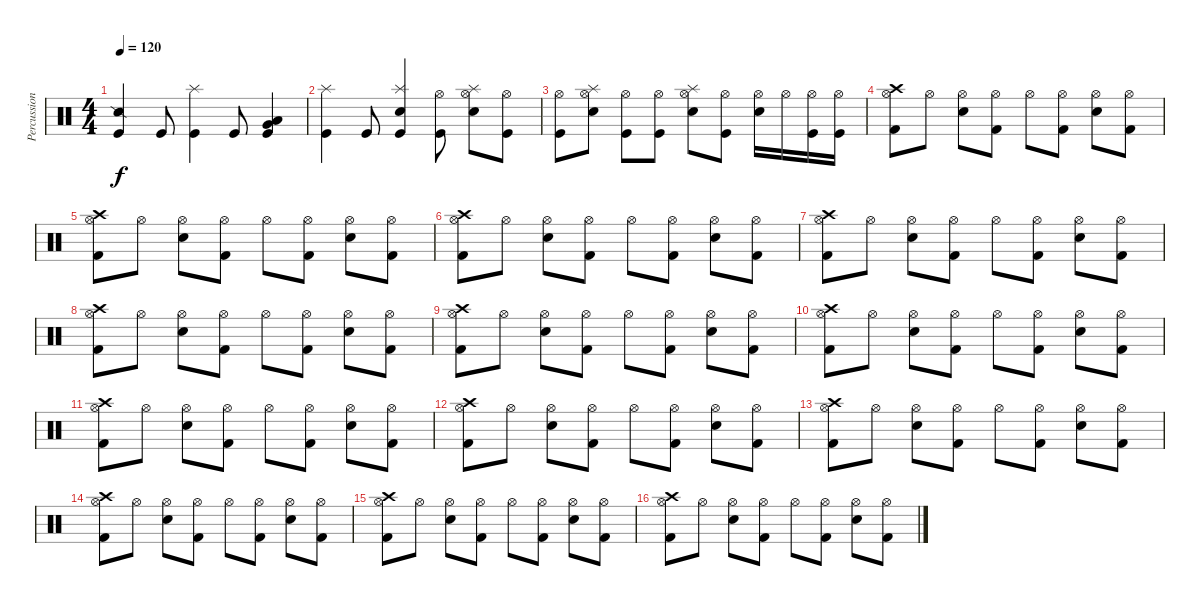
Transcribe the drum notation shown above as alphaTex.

\track ("Percussion" "Percussion") {instrument percussion}
\staff {score}
\articulation defaults
\ts (4 4)
\tempo 120
\clef neutral
\ks c
("Snare (side stick) 2" "Kick (hit)").4{dy f} "Kick (hit)".8 ("Kick (hit)" "Splash (hit)").4 "Kick (hit)".8 ("Kick (hit)" "Low Floor Tom (hit)" "Very Low Tom (hit)").4 |
("Splash (hit)" "Kick (hit)").4 "Kick (hit)".8 ("Snare (hit) 2" "Kick (hit)" "Splash (hit)").4 ("Hi-Hat (open)" "Kick (hit)").8 ("Hi-Hat (open)" "Splash (hit)" "Snare (hit) 2").8 ("Hi-Hat (open)" "Kick (hit)").8 |
("Kick (hit)" "Hi-Hat (open)").8 ("Splash (hit)" "Snare (hit) 2" "Hi-Hat (open)").8 ("Kick (hit)" "Hi-Hat (open)").8 ("Kick (hit)" "Hi-Hat (open)").8 ("Splash (hit)" "Snare (hit) 2" "Hi-Hat (open)").8 ("Kick (hit)" "Hi-Hat (open)").8 ("Snare (hit) 2" "Hi-Hat (open)").16 "Hi-Hat (open)".16 ("Kick (hit)" "Hi-Hat (open)").16 ("Kick (hit)" "Hi-Hat (open)").16 |
("Kick (hit) 2" "Hi-Hat (open)" "Crash high (hit)").8 "Hi-Hat (open)".8 ("Electric Snare (hit)" "Hi-Hat (open)").8 ("Kick (hit) 2" "Hi-Hat (open)").8 "Hi-Hat (open)".8 ("Kick (hit) 2" "Hi-Hat (open)").8 ("Electric Snare (hit)" "Hi-Hat (open)").8 ("Kick (hit) 2" "Hi-Hat (open)").8 |
("Kick (hit) 2" "Hi-Hat (open)" "Crash high (hit)").8 "Hi-Hat (open)".8 ("Electric Snare (hit)" "Hi-Hat (open)").8 ("Kick (hit) 2" "Hi-Hat (open)").8 "Hi-Hat (open)".8 ("Kick (hit) 2" "Hi-Hat (open)").8 ("Electric Snare (hit)" "Hi-Hat (open)").8 ("Kick (hit) 2" "Hi-Hat (open)").8 |
("Kick (hit) 2" "Hi-Hat (open)" "Crash high (hit)").8 "Hi-Hat (open)".8 ("Electric Snare (hit)" "Hi-Hat (open)").8 ("Kick (hit) 2" "Hi-Hat (open)").8 "Hi-Hat (open)".8 ("Kick (hit) 2" "Hi-Hat (open)").8 ("Electric Snare (hit)" "Hi-Hat (open)").8 ("Kick (hit) 2" "Hi-Hat (open)").8 |
("Kick (hit) 2" "Hi-Hat (open)" "Crash high (hit)").8 "Hi-Hat (open)".8 ("Electric Snare (hit)" "Hi-Hat (open)").8 ("Kick (hit) 2" "Hi-Hat (open)").8 "Hi-Hat (open)".8 ("Kick (hit) 2" "Hi-Hat (open)").8 ("Electric Snare (hit)" "Hi-Hat (open)").8 ("Kick (hit) 2" "Hi-Hat (open)").8 |
("Kick (hit) 2" "Hi-Hat (open)" "Crash high (hit)").8 "Hi-Hat (open)".8 ("Electric Snare (hit)" "Hi-Hat (open)").8 ("Kick (hit) 2" "Hi-Hat (open)").8 "Hi-Hat (open)".8 ("Kick (hit) 2" "Hi-Hat (open)").8 ("Electric Snare (hit)" "Hi-Hat (open)").8 ("Kick (hit) 2" "Hi-Hat (open)").8 |
("Kick (hit) 2" "Hi-Hat (open)" "Crash high (hit)").8 "Hi-Hat (open)".8 ("Electric Snare (hit)" "Hi-Hat (open)").8 ("Kick (hit) 2" "Hi-Hat (open)").8 "Hi-Hat (open)".8 ("Kick (hit) 2" "Hi-Hat (open)").8 ("Electric Snare (hit)" "Hi-Hat (open)").8 ("Kick (hit) 2" "Hi-Hat (open)").8 |
("Kick (hit) 2" "Hi-Hat (open)" "Crash high (hit)").8 "Hi-Hat (open)".8 ("Electric Snare (hit)" "Hi-Hat (open)").8 ("Kick (hit) 2" "Hi-Hat (open)").8 "Hi-Hat (open)".8 ("Kick (hit) 2" "Hi-Hat (open)").8 ("Electric Snare (hit)" "Hi-Hat (open)").8 ("Kick (hit) 2" "Hi-Hat (open)").8 |
("Kick (hit) 2" "Hi-Hat (open)" "Crash high (hit)").8 "Hi-Hat (open)".8 ("Electric Snare (hit)" "Hi-Hat (open)").8 ("Kick (hit) 2" "Hi-Hat (open)").8 "Hi-Hat (open)".8 ("Kick (hit) 2" "Hi-Hat (open)").8 ("Electric Snare (hit)" "Hi-Hat (open)").8 ("Kick (hit) 2" "Hi-Hat (open)").8 |
("Kick (hit) 2" "Hi-Hat (open)" "Crash high (hit)").8 "Hi-Hat (open)".8 ("Electric Snare (hit)" "Hi-Hat (open)").8 ("Kick (hit) 2" "Hi-Hat (open)").8 "Hi-Hat (open)".8 ("Kick (hit) 2" "Hi-Hat (open)").8 ("Electric Snare (hit)" "Hi-Hat (open)").8 ("Kick (hit) 2" "Hi-Hat (open)").8 |
("Kick (hit) 2" "Hi-Hat (open)" "Crash high (hit)").8 "Hi-Hat (open)".8 ("Electric Snare (hit)" "Hi-Hat (open)").8 ("Kick (hit) 2" "Hi-Hat (open)").8 "Hi-Hat (open)".8 ("Kick (hit) 2" "Hi-Hat (open)").8 ("Electric Snare (hit)" "Hi-Hat (open)").8 ("Kick (hit) 2" "Hi-Hat (open)").8 |
("Kick (hit) 2" "Hi-Hat (open)" "Crash high (hit)").8 "Hi-Hat (open)".8 ("Electric Snare (hit)" "Hi-Hat (open)").8 ("Kick (hit) 2" "Hi-Hat (open)").8 "Hi-Hat (open)".8 ("Kick (hit) 2" "Hi-Hat (open)").8 ("Electric Snare (hit)" "Hi-Hat (open)").8 ("Kick (hit) 2" "Hi-Hat (open)").8 |
("Kick (hit) 2" "Hi-Hat (open)" "Crash high (hit)").8 "Hi-Hat (open)".8 ("Electric Snare (hit)" "Hi-Hat (open)").8 ("Kick (hit) 2" "Hi-Hat (open)").8 "Hi-Hat (open)".8 ("Kick (hit) 2" "Hi-Hat (open)").8 ("Electric Snare (hit)" "Hi-Hat (open)").8 ("Kick (hit) 2" "Hi-Hat (open)").8 |
("Kick (hit) 2" "Hi-Hat (open)" "Crash high (hit)").8 "Hi-Hat (open)".8 ("Electric Snare (hit)" "Hi-Hat (open)").8 ("Kick (hit) 2" "Hi-Hat (open)").8 "Hi-Hat (open)".8 ("Kick (hit) 2" "Hi-Hat (open)").8 ("Electric Snare (hit)" "Hi-Hat (open)").8 ("Kick (hit) 2" "Hi-Hat (open)").8
